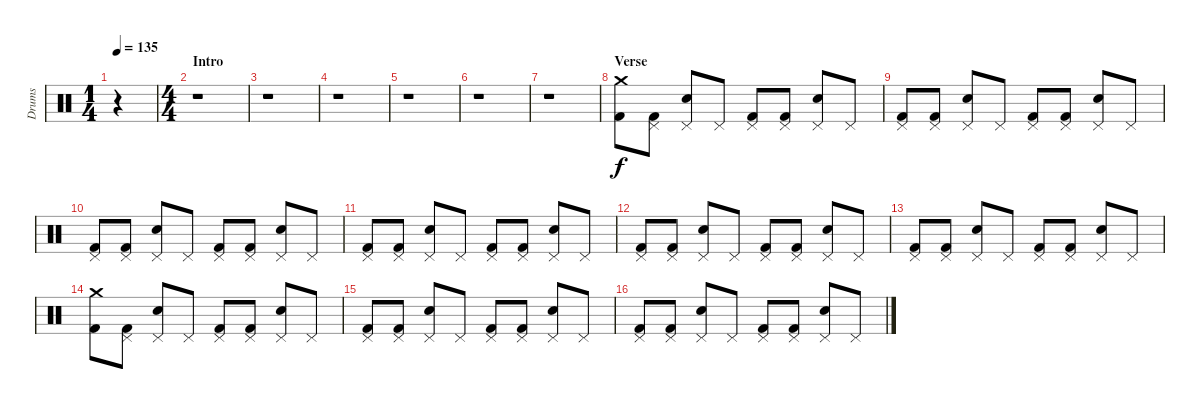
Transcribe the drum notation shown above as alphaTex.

\track ("Drums" "Drums") {instrument percussion}
\staff {score}
\articulation defaults
\ts (1 4)
\tempo 135
\clef neutral
\ks c
r.4{dy f} |
\ts (4 4)
\section ("" "Intro")
r.1 |
r.1 |
r.1 |
r.1 |
r.1 |
r.1 |
\section ("" "Verse")
("Crash medium (hit)" "Kick (hit) 2").8 ("Pedal Hi-Hat (hit)" "Kick (hit) 2").8 ("Pedal Hi-Hat (hit)" "Electric Snare (hit)").8 "Pedal Hi-Hat (hit)".8 ("Pedal Hi-Hat (hit)" "Kick (hit) 2").8 ("Pedal Hi-Hat (hit)" "Kick (hit) 2").8 ("Pedal Hi-Hat (hit)" "Electric Snare (hit)").8 "Pedal Hi-Hat (hit)".8 |
("Pedal Hi-Hat (hit)" "Kick (hit) 2").8 ("Pedal Hi-Hat (hit)" "Kick (hit) 2").8 ("Pedal Hi-Hat (hit)" "Electric Snare (hit)").8 "Pedal Hi-Hat (hit)".8 ("Pedal Hi-Hat (hit)" "Kick (hit) 2").8 ("Pedal Hi-Hat (hit)" "Kick (hit) 2").8 ("Pedal Hi-Hat (hit)" "Electric Snare (hit)").8 "Pedal Hi-Hat (hit)".8 |
("Pedal Hi-Hat (hit)" "Kick (hit) 2").8 ("Pedal Hi-Hat (hit)" "Kick (hit) 2").8 ("Pedal Hi-Hat (hit)" "Electric Snare (hit)").8 "Pedal Hi-Hat (hit)".8 ("Pedal Hi-Hat (hit)" "Kick (hit) 2").8 ("Pedal Hi-Hat (hit)" "Kick (hit) 2").8 ("Pedal Hi-Hat (hit)" "Electric Snare (hit)").8 "Pedal Hi-Hat (hit)".8 |
("Pedal Hi-Hat (hit)" "Kick (hit) 2").8 ("Pedal Hi-Hat (hit)" "Kick (hit) 2").8 ("Pedal Hi-Hat (hit)" "Electric Snare (hit)").8 "Pedal Hi-Hat (hit)".8 ("Pedal Hi-Hat (hit)" "Kick (hit) 2").8 ("Pedal Hi-Hat (hit)" "Kick (hit) 2").8 ("Pedal Hi-Hat (hit)" "Electric Snare (hit)").8 "Pedal Hi-Hat (hit)".8 |
("Pedal Hi-Hat (hit)" "Kick (hit) 2").8 ("Pedal Hi-Hat (hit)" "Kick (hit) 2").8 ("Pedal Hi-Hat (hit)" "Electric Snare (hit)").8 "Pedal Hi-Hat (hit)".8 ("Pedal Hi-Hat (hit)" "Kick (hit) 2").8 ("Pedal Hi-Hat (hit)" "Kick (hit) 2").8 ("Pedal Hi-Hat (hit)" "Electric Snare (hit)").8 "Pedal Hi-Hat (hit)".8 |
("Pedal Hi-Hat (hit)" "Kick (hit) 2").8 ("Pedal Hi-Hat (hit)" "Kick (hit) 2").8 ("Pedal Hi-Hat (hit)" "Electric Snare (hit)").8 "Pedal Hi-Hat (hit)".8 ("Pedal Hi-Hat (hit)" "Kick (hit) 2").8 ("Pedal Hi-Hat (hit)" "Kick (hit) 2").8 ("Pedal Hi-Hat (hit)" "Electric Snare (hit)").8 "Pedal Hi-Hat (hit)".8 |
("Crash medium (hit)" "Kick (hit) 2").8 ("Pedal Hi-Hat (hit)" "Kick (hit) 2").8 ("Pedal Hi-Hat (hit)" "Electric Snare (hit)").8 "Pedal Hi-Hat (hit)".8 ("Pedal Hi-Hat (hit)" "Kick (hit) 2").8 ("Pedal Hi-Hat (hit)" "Kick (hit) 2").8 ("Pedal Hi-Hat (hit)" "Electric Snare (hit)").8 "Pedal Hi-Hat (hit)".8 |
("Pedal Hi-Hat (hit)" "Kick (hit) 2").8 ("Pedal Hi-Hat (hit)" "Kick (hit) 2").8 ("Pedal Hi-Hat (hit)" "Electric Snare (hit)").8 "Pedal Hi-Hat (hit)".8 ("Pedal Hi-Hat (hit)" "Kick (hit) 2").8 ("Pedal Hi-Hat (hit)" "Kick (hit) 2").8 ("Pedal Hi-Hat (hit)" "Electric Snare (hit)").8 "Pedal Hi-Hat (hit)".8 |
("Pedal Hi-Hat (hit)" "Kick (hit) 2").8 ("Pedal Hi-Hat (hit)" "Kick (hit) 2").8 ("Pedal Hi-Hat (hit)" "Electric Snare (hit)").8 "Pedal Hi-Hat (hit)".8 ("Pedal Hi-Hat (hit)" "Kick (hit) 2").8 ("Pedal Hi-Hat (hit)" "Kick (hit) 2").8 ("Pedal Hi-Hat (hit)" "Electric Snare (hit)").8 "Pedal Hi-Hat (hit)".8
